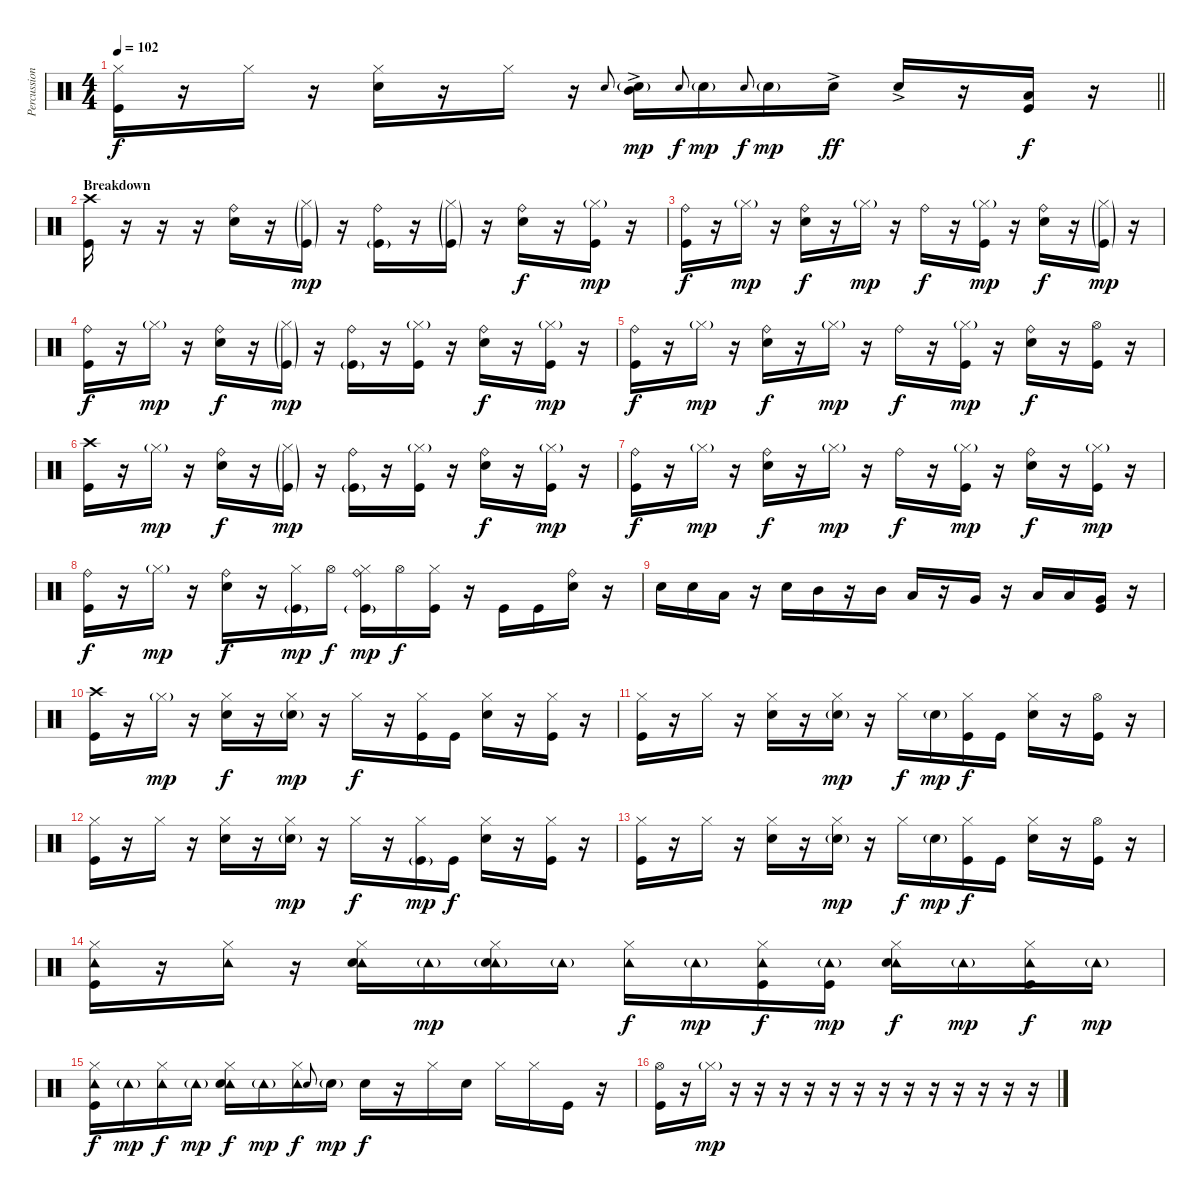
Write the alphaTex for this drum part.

\track ("Percussion" "Percussion") {instrument percussion}
\staff {score}
\articulation defaults
\ts (4 4)
\tempo 102
\clef neutral
\barLineRight lightlight
\ks c
("Hi-Hat (closed)" "Kick (hit)").16{dy f} r.16 "Hi-Hat (closed)".16 r.16 ("Hi-Hat (closed)" "Snare (hit) 2").16 r.16 "Hi-Hat (closed)".16 r.16 "Snare (hit) 2".8{gr onbeat} ("Mid Tom (hit)"{ac} "Snare (hit) 2"{g}).16{dy mp} "Snare (hit) 2".8{gr onbeat dy f} "Snare (hit) 2"{g}.16{dy mp} "Snare (hit) 2".8{gr onbeat dy f} "Snare (hit) 2"{g}.16{dy mp} "Snare (hit) 2"{ac}.16{dy ff} "Snare (hit) 2"{ac}.16 r.16 ("Low Tom (hit)" "Kick (hit)").16{dy f} r.16 |
\section ("" "Breakdown")
("Crash high (hit)" "Kick (hit)").16 r.16 r.16 r.16 ("Ride (bell)" "Snare (hit) 2").16 r.16 ("Hi-Hat (closed)"{g} "Kick (hit)"{g}).16{dy mp} r.16 ("Ride (bell)" "Kick (hit)"{g}).16 r.16 ("Hi-Hat (closed)"{g} "Kick (hit)"{g}).16 r.16 ("Ride (bell)" "Snare (hit) 2").16{dy f} r.16 ("Hi-Hat (closed)"{g} "Kick (hit)").16{dy mp} r.16 |
("Ride (bell)" "Kick (hit)").16{dy f} r.16 "Hi-Hat (closed)"{g}.16{dy mp} r.16 ("Ride (bell)" "Snare (hit) 2").16{dy f} r.16 "Hi-Hat (closed)"{g}.16{dy mp} r.16 "Ride (bell)".16{dy f} r.16 ("Hi-Hat (closed)"{g} "Kick (hit)").16{dy mp} r.16 ("Ride (bell)" "Snare (hit) 2").16{dy f} r.16 ("Hi-Hat (closed)"{g} "Kick (hit)"{g}).16{dy mp} r.16 |
("Ride (bell)" "Kick (hit)").16{dy f} r.16 "Hi-Hat (closed)"{g}.16{dy mp} r.16 ("Ride (bell)" "Snare (hit) 2").16{dy f} r.16 ("Hi-Hat (closed)"{g} "Kick (hit)"{g}).16{dy mp} r.16 ("Ride (bell)" "Kick (hit)"{g}).16 r.16 ("Hi-Hat (closed)"{g} "Kick (hit)").16 r.16 ("Ride (bell)" "Snare (hit) 2").16{dy f} r.16 ("Hi-Hat (closed)"{g} "Kick (hit)").16{dy mp} r.16 |
("Ride (bell)" "Kick (hit)").16{dy f} r.16 "Hi-Hat (closed)"{g}.16{dy mp} r.16 ("Ride (bell)" "Snare (hit) 2").16{dy f} r.16 "Hi-Hat (closed)"{g}.16{dy mp} r.16 "Ride (bell)".16{dy f} r.16 ("Hi-Hat (closed)"{g} "Kick (hit)").16{dy mp} r.16 ("Ride (bell)" "Snare (hit) 2").16{dy f} r.16 ("Hi-Hat (open)" "Kick (hit)").16 r.16 |
("Crash high (hit)" "Kick (hit)").16 r.16 "Hi-Hat (closed)"{g}.16{dy mp} r.16 ("Ride (bell)" "Snare (hit) 2").16{dy f} r.16 ("Hi-Hat (closed)"{g} "Kick (hit)"{g}).16{dy mp} r.16 ("Ride (bell)" "Kick (hit)"{g}).16 r.16 ("Hi-Hat (closed)"{g} "Kick (hit)").16 r.16 ("Ride (bell)" "Snare (hit) 2").16{dy f} r.16 ("Hi-Hat (closed)"{g} "Kick (hit)").16{dy mp} r.16 |
("Ride (bell)" "Kick (hit)").16{dy f} r.16 "Hi-Hat (closed)"{g}.16{dy mp} r.16 ("Ride (bell)" "Snare (hit) 2").16{dy f} r.16 "Hi-Hat (closed)"{g}.16{dy mp} r.16 "Ride (bell)".16{dy f} r.16 ("Hi-Hat (closed)"{g} "Kick (hit)").16{dy mp} r.16 ("Ride (bell)" "Snare (hit) 2").16{dy f} r.16 ("Hi-Hat (closed)"{g} "Kick (hit)").16{dy mp} r.16 |
("Ride (bell)" "Kick (hit)").16{dy f} r.16 "Hi-Hat (closed)"{g}.16{dy mp} r.16 ("Ride (bell)" "Snare (hit) 2").16{dy f} r.16 ("Hi-Hat (closed)" "Kick (hit)"{g}).16{dy mp} "Hi-Hat (open)".16{dy f} ("Ride (bell)" "Hi-Hat (closed)" "Kick (hit)"{g}).16{dy mp} "Hi-Hat (open)".16{dy f} ("Hi-Hat (closed)" "Kick (hit)").16 r.16 "Kick (hit)".16 "Kick (hit)".16 ("Ride (bell)" "Snare (hit) 2").16 r.16 |
"Snare (hit) 2".16 "Snare (hit) 2".16 "Low Tom (hit)".16 r.16 "Snare (hit) 2".16 "Mid Tom (hit)".16 r.16 "Mid Tom (hit)".16 "Low Tom (hit)".16 r.16 "Very Low Tom (hit)".16 r.16 "Low Tom (hit)".16 "Low Tom (hit)".16 ("Very Low Tom (hit)" "Kick (hit)").16 r.16 |
("Crash high (hit)" "Kick (hit)").16 r.16 "Hi-Hat (closed)"{g}.16{dy mp} r.16 ("Hi-Hat (closed)" "Snare (hit) 2").16{dy f} r.16 ("Hi-Hat (closed)" "Snare (hit) 2"{g}).16{dy mp} r.16 "Hi-Hat (closed)".16{dy f} r.16 ("Hi-Hat (closed)" "Kick (hit)").16 "Kick (hit)".16 ("Hi-Hat (closed)" "Snare (hit) 2").16 r.16 ("Hi-Hat (closed)" "Kick (hit)").16 r.16 |
("Hi-Hat (closed)" "Kick (hit)").16 r.16 "Hi-Hat (closed)".16 r.16 ("Hi-Hat (closed)" "Snare (hit) 2").16 r.16 ("Hi-Hat (closed)" "Snare (hit) 2"{g}).16{dy mp} r.16 "Hi-Hat (closed)".16{dy f} "Snare (hit) 2"{g}.16{dy mp} ("Hi-Hat (closed)" "Kick (hit)").16{dy f} "Kick (hit)".16 ("Hi-Hat (closed)" "Snare (hit) 2").16 r.16 ("Hi-Hat (open)" "Kick (hit)").16 r.16 |
("Hi-Hat (closed)" "Kick (hit)").16 r.16 "Hi-Hat (closed)".16 r.16 ("Hi-Hat (closed)" "Snare (hit) 2").16 r.16 ("Hi-Hat (closed)" "Snare (hit) 2"{g}).16{dy mp} r.16 "Hi-Hat (closed)".16{dy f} r.16 ("Hi-Hat (closed)" "Kick (hit)"{g}).16{dy mp} "Kick (hit)".16{dy f} ("Hi-Hat (closed)" "Snare (hit) 2").16 r.16 ("Hi-Hat (closed)" "Kick (hit)").16 r.16 |
("Hi-Hat (closed)" "Kick (hit)").16 r.16 "Hi-Hat (closed)".16 r.16 ("Hi-Hat (closed)" "Snare (hit) 2").16 r.16 ("Hi-Hat (closed)" "Snare (hit) 2"{g}).16{dy mp} r.16 "Hi-Hat (closed)".16{dy f} "Snare (hit) 2"{g}.16{dy mp} ("Hi-Hat (closed)" "Kick (hit)").16{dy f} "Kick (hit)".16 ("Hi-Hat (closed)" "Snare (hit) 2").16 r.16 ("Hi-Hat (open)" "Kick (hit)").16 r.16 |
("Tambourine (hit)" "Hi-Hat (closed)" "Kick (hit)").16 r.16 ("Tambourine (hit)" "Hi-Hat (closed)").16 r.16 ("Tambourine (hit)" "Hi-Hat (closed)" "Snare (hit) 2").16 "Tambourine (hit)"{g}.16{dy mp} ("Tambourine (hit)" "Hi-Hat (closed)" "Snare (hit) 2"{g}).16 "Tambourine (hit)"{g}.16 ("Tambourine (hit)" "Hi-Hat (closed)").16{dy f} "Tambourine (hit)"{g}.16{dy mp} ("Tambourine (hit)" "Hi-Hat (closed)" "Kick (hit)").16{dy f} ("Tambourine (hit)"{g} "Kick (hit)").16{dy mp} ("Tambourine (hit)" "Hi-Hat (closed)" "Snare (hit) 2").16{dy f} "Tambourine (hit)"{g}.16{dy mp} ("Tambourine (hit)" "Hi-Hat (closed)" "Kick (hit)").16{dy f} "Tambourine (hit)"{g}.16{dy mp} |
("Tambourine (hit)" "Hi-Hat (closed)" "Kick (hit)").16{dy f} "Tambourine (hit)"{g}.16{dy mp} ("Tambourine (hit)" "Hi-Hat (closed)").16{dy f} "Tambourine (hit)"{g}.16{dy mp} ("Tambourine (hit)" "Hi-Hat (closed)" "Snare (hit) 2").16{dy f} "Tambourine (hit)"{g}.16{dy mp} ("Tambourine (hit)" "Hi-Hat (closed)").16{dy f} "Snare (hit) 2".8{gr onbeat} "Snare (hit) 2"{g}.16{dy mp} "Snare (hit) 2".16{dy f} r.16 "Hi-Hat (closed)".16 "Snare (hit) 2".16 "Hi-Hat (closed)".16 "Hi-Hat (closed)".16 "Kick (hit)".16 r.16 |
("Hi-Hat (open)" "Kick (hit)").16 r.16 "Hi-Hat (closed)"{g}.16{dy mp} r.16 r.16 r.16 r.16 r.16 r.16 r.16 r.16 r.16 r.16 r.16 r.16 r.16
